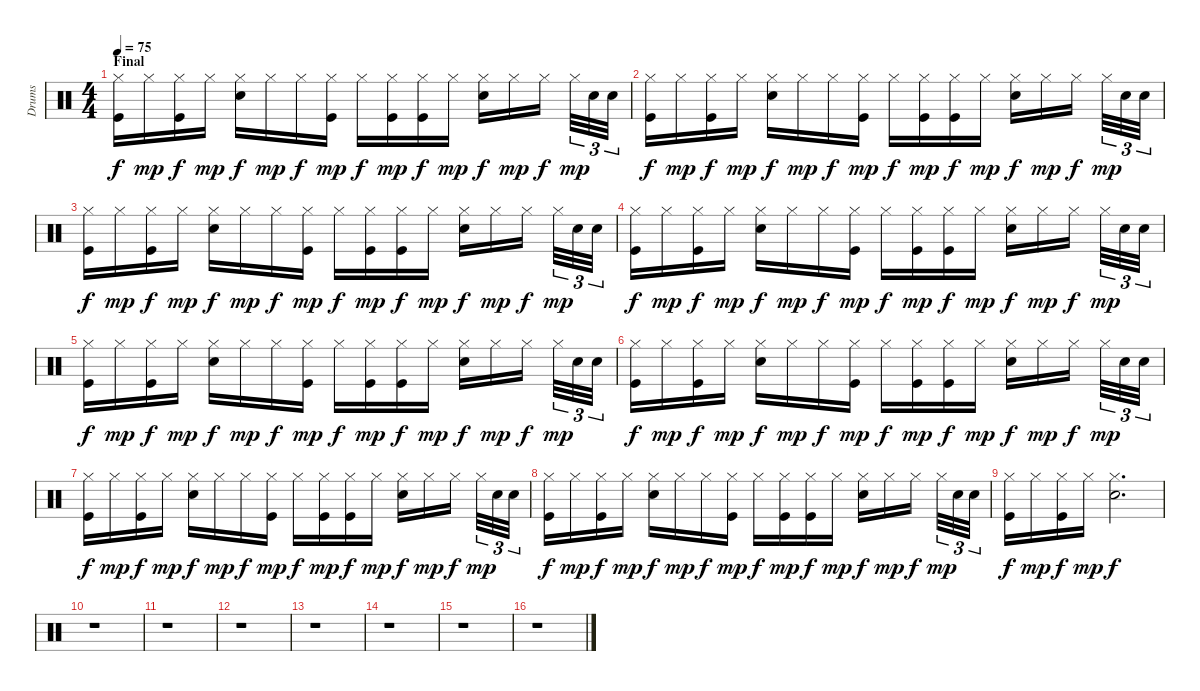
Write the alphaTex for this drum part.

\track ("Drums" "Drums") {instrument percussion}
\staff {score}
\articulation defaults
\ts (4 4)
\section ("" "Final")
\tempo 75
\clef neutral
\ks c
("Hi-Hat (closed)" "Kick (hit)").16{dy f} "Hi-Hat (closed)".16{dy mp} ("Hi-Hat (closed)" "Kick (hit)").16{dy f} "Hi-Hat (closed)".16{dy mp} ("Hi-Hat (closed)" "Snare (hit) 2").16{dy f} "Hi-Hat (closed)".16{dy mp} "Hi-Hat (closed)".16{dy f} ("Hi-Hat (closed)" "Kick (hit)").16{dy mp} "Hi-Hat (closed)".16{dy f} ("Hi-Hat (closed)" "Kick (hit)").16{dy mp} ("Hi-Hat (closed)" "Kick (hit)").16{dy f} "Hi-Hat (closed)".16{dy mp} ("Hi-Hat (closed)" "Snare (hit) 2").16{dy f} "Hi-Hat (closed)".16{dy mp} "Hi-Hat (closed)".16{dy f beam splitsecondary} "Hi-Hat (closed)".32{tu (3 2) dy mp} "Snare (hit) 2".32{tu (3 2)} "Snare (hit) 2".32{tu (3 2)} |
("Hi-Hat (closed)" "Kick (hit)").16{dy f} "Hi-Hat (closed)".16{dy mp} ("Hi-Hat (closed)" "Kick (hit)").16{dy f} "Hi-Hat (closed)".16{dy mp} ("Hi-Hat (closed)" "Snare (hit) 2").16{dy f} "Hi-Hat (closed)".16{dy mp} "Hi-Hat (closed)".16{dy f} ("Hi-Hat (closed)" "Kick (hit)").16{dy mp} "Hi-Hat (closed)".16{dy f} ("Hi-Hat (closed)" "Kick (hit)").16{dy mp} ("Hi-Hat (closed)" "Kick (hit)").16{dy f} "Hi-Hat (closed)".16{dy mp} ("Hi-Hat (closed)" "Snare (hit) 2").16{dy f} "Hi-Hat (closed)".16{dy mp} "Hi-Hat (closed)".16{dy f beam splitsecondary} "Hi-Hat (closed)".32{tu (3 2) dy mp} "Snare (hit) 2".32{tu (3 2)} "Snare (hit) 2".32{tu (3 2)} |
("Hi-Hat (closed)" "Kick (hit)").16{dy f} "Hi-Hat (closed)".16{dy mp} ("Hi-Hat (closed)" "Kick (hit)").16{dy f} "Hi-Hat (closed)".16{dy mp} ("Hi-Hat (closed)" "Snare (hit) 2").16{dy f} "Hi-Hat (closed)".16{dy mp} "Hi-Hat (closed)".16{dy f} ("Hi-Hat (closed)" "Kick (hit)").16{dy mp} "Hi-Hat (closed)".16{dy f} ("Hi-Hat (closed)" "Kick (hit)").16{dy mp} ("Hi-Hat (closed)" "Kick (hit)").16{dy f} "Hi-Hat (closed)".16{dy mp} ("Hi-Hat (closed)" "Snare (hit) 2").16{dy f} "Hi-Hat (closed)".16{dy mp} "Hi-Hat (closed)".16{dy f beam splitsecondary} "Hi-Hat (closed)".32{tu (3 2) dy mp} "Snare (hit) 2".32{tu (3 2)} "Snare (hit) 2".32{tu (3 2)} |
("Hi-Hat (closed)" "Kick (hit)").16{dy f} "Hi-Hat (closed)".16{dy mp} ("Hi-Hat (closed)" "Kick (hit)").16{dy f} "Hi-Hat (closed)".16{dy mp} ("Hi-Hat (closed)" "Snare (hit) 2").16{dy f} "Hi-Hat (closed)".16{dy mp} "Hi-Hat (closed)".16{dy f} ("Hi-Hat (closed)" "Kick (hit)").16{dy mp} "Hi-Hat (closed)".16{dy f} ("Hi-Hat (closed)" "Kick (hit)").16{dy mp} ("Hi-Hat (closed)" "Kick (hit)").16{dy f} "Hi-Hat (closed)".16{dy mp} ("Hi-Hat (closed)" "Snare (hit) 2").16{dy f} "Hi-Hat (closed)".16{dy mp} "Hi-Hat (closed)".16{dy f beam splitsecondary} "Hi-Hat (closed)".32{tu (3 2) dy mp} "Snare (hit) 2".32{tu (3 2)} "Snare (hit) 2".32{tu (3 2)} |
("Hi-Hat (closed)" "Kick (hit)").16{dy f} "Hi-Hat (closed)".16{dy mp} ("Hi-Hat (closed)" "Kick (hit)").16{dy f} "Hi-Hat (closed)".16{dy mp} ("Hi-Hat (closed)" "Snare (hit) 2").16{dy f} "Hi-Hat (closed)".16{dy mp} "Hi-Hat (closed)".16{dy f} ("Hi-Hat (closed)" "Kick (hit)").16{dy mp} "Hi-Hat (closed)".16{dy f} ("Hi-Hat (closed)" "Kick (hit)").16{dy mp} ("Hi-Hat (closed)" "Kick (hit)").16{dy f} "Hi-Hat (closed)".16{dy mp} ("Hi-Hat (closed)" "Snare (hit) 2").16{dy f} "Hi-Hat (closed)".16{dy mp} "Hi-Hat (closed)".16{dy f beam splitsecondary} "Hi-Hat (closed)".32{tu (3 2) dy mp} "Snare (hit) 2".32{tu (3 2)} "Snare (hit) 2".32{tu (3 2)} |
("Hi-Hat (closed)" "Kick (hit)").16{dy f} "Hi-Hat (closed)".16{dy mp} ("Hi-Hat (closed)" "Kick (hit)").16{dy f} "Hi-Hat (closed)".16{dy mp} ("Hi-Hat (closed)" "Snare (hit) 2").16{dy f} "Hi-Hat (closed)".16{dy mp} "Hi-Hat (closed)".16{dy f} ("Hi-Hat (closed)" "Kick (hit)").16{dy mp} "Hi-Hat (closed)".16{dy f} ("Hi-Hat (closed)" "Kick (hit)").16{dy mp} ("Hi-Hat (closed)" "Kick (hit)").16{dy f} "Hi-Hat (closed)".16{dy mp} ("Hi-Hat (closed)" "Snare (hit) 2").16{dy f} "Hi-Hat (closed)".16{dy mp} "Hi-Hat (closed)".16{dy f beam splitsecondary} "Hi-Hat (closed)".32{tu (3 2) dy mp} "Snare (hit) 2".32{tu (3 2)} "Snare (hit) 2".32{tu (3 2)} |
("Hi-Hat (closed)" "Kick (hit)").16{dy f} "Hi-Hat (closed)".16{dy mp} ("Hi-Hat (closed)" "Kick (hit)").16{dy f} "Hi-Hat (closed)".16{dy mp} ("Hi-Hat (closed)" "Snare (hit) 2").16{dy f} "Hi-Hat (closed)".16{dy mp} "Hi-Hat (closed)".16{dy f} ("Hi-Hat (closed)" "Kick (hit)").16{dy mp} "Hi-Hat (closed)".16{dy f} ("Hi-Hat (closed)" "Kick (hit)").16{dy mp} ("Hi-Hat (closed)" "Kick (hit)").16{dy f} "Hi-Hat (closed)".16{dy mp} ("Hi-Hat (closed)" "Snare (hit) 2").16{dy f} "Hi-Hat (closed)".16{dy mp} "Hi-Hat (closed)".16{dy f beam splitsecondary} "Hi-Hat (closed)".32{tu (3 2) dy mp} "Snare (hit) 2".32{tu (3 2)} "Snare (hit) 2".32{tu (3 2)} |
("Hi-Hat (closed)" "Kick (hit)").16{dy f} "Hi-Hat (closed)".16{dy mp} ("Hi-Hat (closed)" "Kick (hit)").16{dy f} "Hi-Hat (closed)".16{dy mp} ("Hi-Hat (closed)" "Snare (hit) 2").16{dy f} "Hi-Hat (closed)".16{dy mp} "Hi-Hat (closed)".16{dy f} ("Hi-Hat (closed)" "Kick (hit)").16{dy mp} "Hi-Hat (closed)".16{dy f} ("Hi-Hat (closed)" "Kick (hit)").16{dy mp} ("Hi-Hat (closed)" "Kick (hit)").16{dy f} "Hi-Hat (closed)".16{dy mp} ("Hi-Hat (closed)" "Snare (hit) 2").16{dy f} "Hi-Hat (closed)".16{dy mp} "Hi-Hat (closed)".16{dy f beam splitsecondary} "Hi-Hat (closed)".32{tu (3 2) dy mp} "Snare (hit) 2".32{tu (3 2)} "Snare (hit) 2".32{tu (3 2)} |
("Hi-Hat (closed)" "Kick (hit)").16{dy f} "Hi-Hat (closed)".16{dy mp} ("Hi-Hat (closed)" "Kick (hit)").16{dy f} "Hi-Hat (closed)".16{dy mp} ("Hi-Hat (closed)" "Snare (hit) 2").2{d dy f} |
r.1 |
r.1 |
r.1 |
r.1 |
r.1 |
r.1 |
r.1
